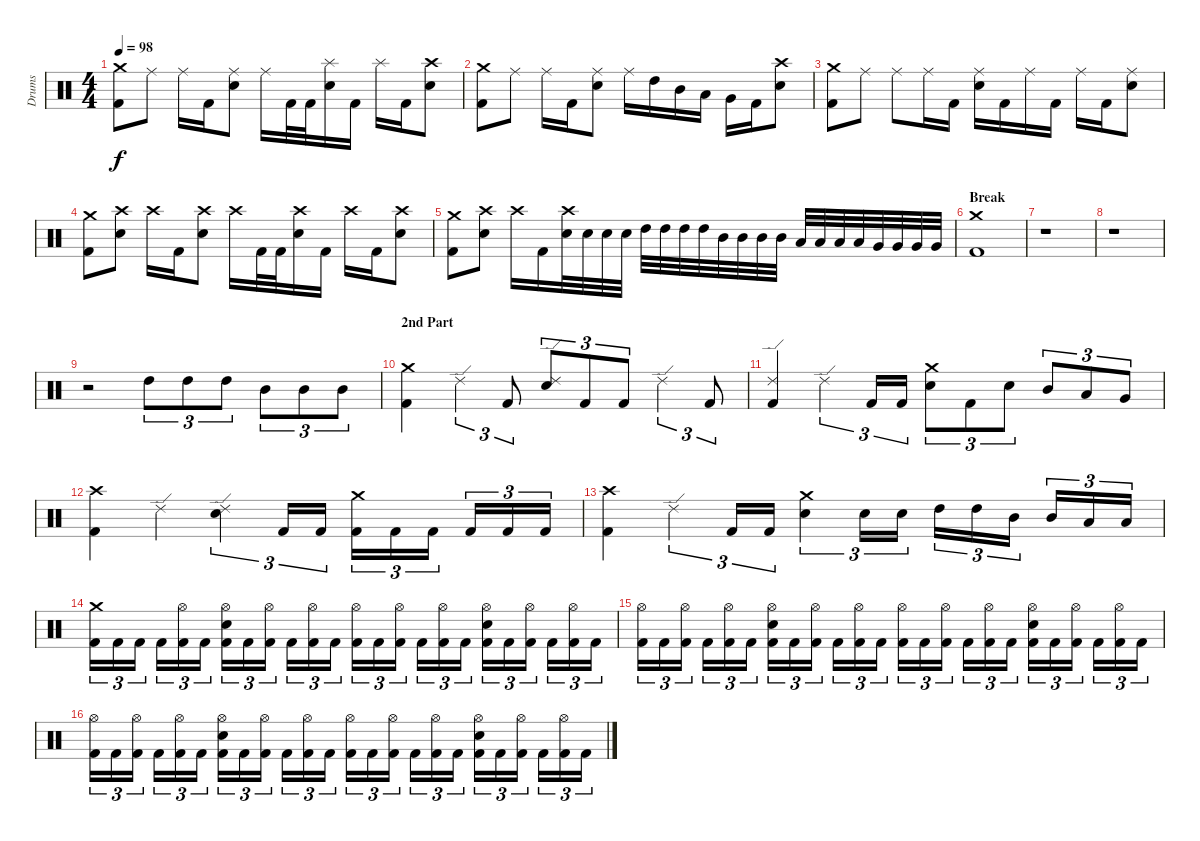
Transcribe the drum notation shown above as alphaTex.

\track ("Drums" "Drums") {instrument percussion}
\staff {score}
\articulation defaults
\ts (4 4)
\tempo 98
\clef neutral
\ks c
("Kick (hit) 2" "Crash medium (hit)").8{dy f} "Ride (middle)".8 "Ride (middle)".16 "Kick (hit) 2".16 ("Electric Snare (hit)" "Ride (middle)").8 "Ride (middle)".16 "Kick (hit) 2".32 "Kick (hit) 2".32 ("Electric Snare (hit)" "Splash (hit)").16 "Kick (hit) 2".16 "Splash (hit)".16 "Kick (hit) 2".16 ("Electric Snare (hit)" "Crash high (hit)").8 |
("Kick (hit) 2" "Crash medium (hit)").8 "Ride (middle)".8 "Ride (middle)".16 "Kick (hit) 2".16 ("Electric Snare (hit)" "Ride (middle)").8 "Ride (middle)".16 "High Tom (hit)".16 "Mid Tom (hit)".16 "Low Tom (hit)".16 "Very Low Tom (hit)".16 "Kick (hit) 2".16 ("Electric Snare (hit)" "Crash high (hit)").8 |
("Kick (hit) 2" "Crash medium (hit)").8 "Ride (middle)".8 "Ride (middle)".8 "Ride (middle)".16 "Kick (hit) 2".16 ("Electric Snare (hit)" "Ride (middle)").16 "Kick (hit) 2".16 "Ride (middle)".16 "Kick (hit) 2".16 "Ride (middle)".16 "Kick (hit) 2".16 ("Electric Snare (hit)" "Ride (middle)").8 |
("Kick (hit) 2" "Crash medium (hit)").8 ("Electric Snare (hit)" "Crash high (hit)").8 "Crash high (hit)".16 "Kick (hit) 2".16 ("Electric Snare (hit)" "Crash high (hit)").8 "Crash high (hit)".16 "Kick (hit) 2".32 "Kick (hit) 2".32 ("Electric Snare (hit)" "Crash high (hit)").16 "Kick (hit) 2".16 "Crash high (hit)".16 "Kick (hit) 2".16 ("Electric Snare (hit)" "Crash high (hit)").8 |
("Kick (hit) 2" "Crash medium (hit)").8 ("Electric Snare (hit)" "Crash high (hit)").8 "Crash high (hit)".16 "Kick (hit) 2".16 ("Electric Snare (hit)" "Crash high (hit)").32 "Electric Snare (hit)".32 "Electric Snare (hit)".32 "Electric Snare (hit)".32 "High Tom (hit)".32 "High Tom (hit)".32 "High Tom (hit)".32 "High Tom (hit)".32 "Mid Tom (hit)".32 "Mid Tom (hit)".32 "Mid Tom (hit)".32 "Mid Tom (hit)".32 "Low Tom (hit)".32 "Low Tom (hit)".32 "Low Tom (hit)".32 "Low Tom (hit)".32 "Very Low Tom (hit)".32 "Very Low Tom (hit)".32 "Very Low Tom (hit)".32 "Very Low Tom (hit)".32 |
\section ("" "Break")
("Kick (hit) 2" "Crash medium (hit)").1 |
r.1 |
r.1 |
r.2 "High Tom (hit)".8{tu (3 2)} "High Tom (hit)".8{tu (3 2)} "High Tom (hit)".8{tu (3 2)} "Mid Tom (hit)".8{tu (3 2)} "Mid Tom (hit)".8{tu (3 2)} "Mid Tom (hit)".8{tu (3 2)} |
\section ("" "2nd Part")
("Kick (hit) 2" "Crash medium (hit)").4 "Ride (edge) 2".4{tu (3 2)} "Kick (hit) 2".8{tu (3 2)} ("Electric Snare (hit)" "Ride (edge) 2").8{tu (3 2)} "Kick (hit) 2".8{tu (3 2)} "Kick (hit) 2".8{tu (3 2)} "Ride (edge) 2".4{tu (3 2)} "Kick (hit) 2".8{tu (3 2)} |
("Kick (hit) 2" "Ride (edge) 2").4 "Ride (edge) 2".4{tu (3 2)} "Kick (hit) 2".16{tu (3 2)} "Kick (hit) 2".16{tu (3 2)} ("Electric Snare (hit)" "Crash medium (hit)").8{tu (3 2)} "Kick (hit) 2".8{tu (3 2)} "Electric Snare (hit)".8{tu (3 2)} "Mid Tom (hit)".8{tu (3 2)} "Low Tom (hit)".8{tu (3 2)} "Very Low Tom (hit)".8{tu (3 2)} |
("Kick (hit) 2" "Crash high (hit)").4 "Ride (edge) 2".4 ("Electric Snare (hit)" "Ride (edge) 2").4{tu (3 2)} "Kick (hit) 2".16{tu (3 2)} "Kick (hit) 2".16{tu (3 2)} ("Kick (hit) 2" "Crash medium (hit)").16{tu (3 2)} "Kick (hit) 2".16{tu (3 2)} "Kick (hit) 2".16{tu (3 2)} "Kick (hit) 2".16{tu (3 2)} "Kick (hit) 2".16{tu (3 2)} "Kick (hit) 2".16{tu (3 2)} |
("Kick (hit) 2" "Crash high (hit)").4 "Ride (edge) 2".4{tu (3 2)} "Kick (hit) 2".16{tu (3 2)} "Kick (hit) 2".16{tu (3 2)} ("Electric Snare (hit)" "Crash medium (hit)").4{tu (3 2)} "Electric Snare (hit)".16{tu (3 2)} "Electric Snare (hit)".16{tu (3 2)} "High Tom (hit)".16{tu (3 2)} "High Tom (hit)".16{tu (3 2)} "Mid Tom (hit)".16{tu (3 2)} "Mid Tom (hit)".16{tu (3 2)} "Low Tom (hit)".16{tu (3 2)} "Low Tom (hit)".16{tu (3 2)} |
("Kick (hit) 2" "Crash medium (hit)").16{tu (3 2)} "Kick (hit) 2".16{tu (3 2)} "Kick (hit) 2".16{tu (3 2)} "Kick (hit) 2".16{tu (3 2)} ("Kick (hit) 2" "Hi-Hat (open)").16{tu (3 2)} "Kick (hit) 2".16{tu (3 2)} ("Kick (hit) 2" "Electric Snare (hit)" "Hi-Hat (open)").16{tu (3 2)} "Kick (hit) 2".16{tu (3 2)} ("Kick (hit) 2" "Hi-Hat (open)").16{tu (3 2)} "Kick (hit) 2".16{tu (3 2)} ("Kick (hit) 2" "Hi-Hat (open)").16{tu (3 2)} "Kick (hit) 2".16{tu (3 2)} ("Kick (hit) 2" "Hi-Hat (open)").16{tu (3 2)} "Kick (hit) 2".16{tu (3 2)} ("Kick (hit) 2" "Hi-Hat (open)").16{tu (3 2)} "Kick (hit) 2".16{tu (3 2)} ("Kick (hit) 2" "Hi-Hat (open)").16{tu (3 2)} "Kick (hit) 2".16{tu (3 2)} ("Kick (hit) 2" "Electric Snare (hit)" "Hi-Hat (open)").16{tu (3 2)} "Kick (hit) 2".16{tu (3 2)} ("Kick (hit) 2" "Hi-Hat (open)").16{tu (3 2)} "Kick (hit) 2".16{tu (3 2)} ("Kick (hit) 2" "Hi-Hat (open)").16{tu (3 2)} "Kick (hit) 2".16{tu (3 2)} |
("Kick (hit) 2" "Hi-Hat (open)").16{tu (3 2)} "Kick (hit) 2".16{tu (3 2)} ("Kick (hit) 2" "Hi-Hat (open)").16{tu (3 2)} "Kick (hit) 2".16{tu (3 2)} ("Kick (hit) 2" "Hi-Hat (open)").16{tu (3 2)} "Kick (hit) 2".16{tu (3 2)} ("Kick (hit) 2" "Electric Snare (hit)" "Hi-Hat (open)").16{tu (3 2)} "Kick (hit) 2".16{tu (3 2)} ("Kick (hit) 2" "Hi-Hat (open)").16{tu (3 2)} "Kick (hit) 2".16{tu (3 2)} ("Kick (hit) 2" "Hi-Hat (open)").16{tu (3 2)} "Kick (hit) 2".16{tu (3 2)} ("Kick (hit) 2" "Hi-Hat (open)").16{tu (3 2)} "Kick (hit) 2".16{tu (3 2)} ("Kick (hit) 2" "Hi-Hat (open)").16{tu (3 2)} "Kick (hit) 2".16{tu (3 2)} ("Kick (hit) 2" "Hi-Hat (open)").16{tu (3 2)} "Kick (hit) 2".16{tu (3 2)} ("Kick (hit) 2" "Electric Snare (hit)" "Hi-Hat (open)").16{tu (3 2)} "Kick (hit) 2".16{tu (3 2)} ("Kick (hit) 2" "Hi-Hat (open)").16{tu (3 2)} "Kick (hit) 2".16{tu (3 2)} ("Kick (hit) 2" "Hi-Hat (open)").16{tu (3 2)} "Kick (hit) 2".16{tu (3 2)} |
("Kick (hit) 2" "Hi-Hat (open)").16{tu (3 2)} "Kick (hit) 2".16{tu (3 2)} ("Kick (hit) 2" "Hi-Hat (open)").16{tu (3 2)} "Kick (hit) 2".16{tu (3 2)} ("Kick (hit) 2" "Hi-Hat (open)").16{tu (3 2)} "Kick (hit) 2".16{tu (3 2)} ("Kick (hit) 2" "Electric Snare (hit)" "Hi-Hat (open)").16{tu (3 2)} "Kick (hit) 2".16{tu (3 2)} ("Kick (hit) 2" "Hi-Hat (open)").16{tu (3 2)} "Kick (hit) 2".16{tu (3 2)} ("Kick (hit) 2" "Hi-Hat (open)").16{tu (3 2)} "Kick (hit) 2".16{tu (3 2)} ("Kick (hit) 2" "Hi-Hat (open)").16{tu (3 2)} "Kick (hit) 2".16{tu (3 2)} ("Kick (hit) 2" "Hi-Hat (open)").16{tu (3 2)} "Kick (hit) 2".16{tu (3 2)} ("Kick (hit) 2" "Hi-Hat (open)").16{tu (3 2)} "Kick (hit) 2".16{tu (3 2)} ("Kick (hit) 2" "Electric Snare (hit)" "Hi-Hat (open)").16{tu (3 2)} "Kick (hit) 2".16{tu (3 2)} ("Kick (hit) 2" "Hi-Hat (open)").16{tu (3 2)} "Kick (hit) 2".16{tu (3 2)} ("Kick (hit) 2" "Hi-Hat (open)").16{tu (3 2)} "Kick (hit) 2".16{tu (3 2)}
